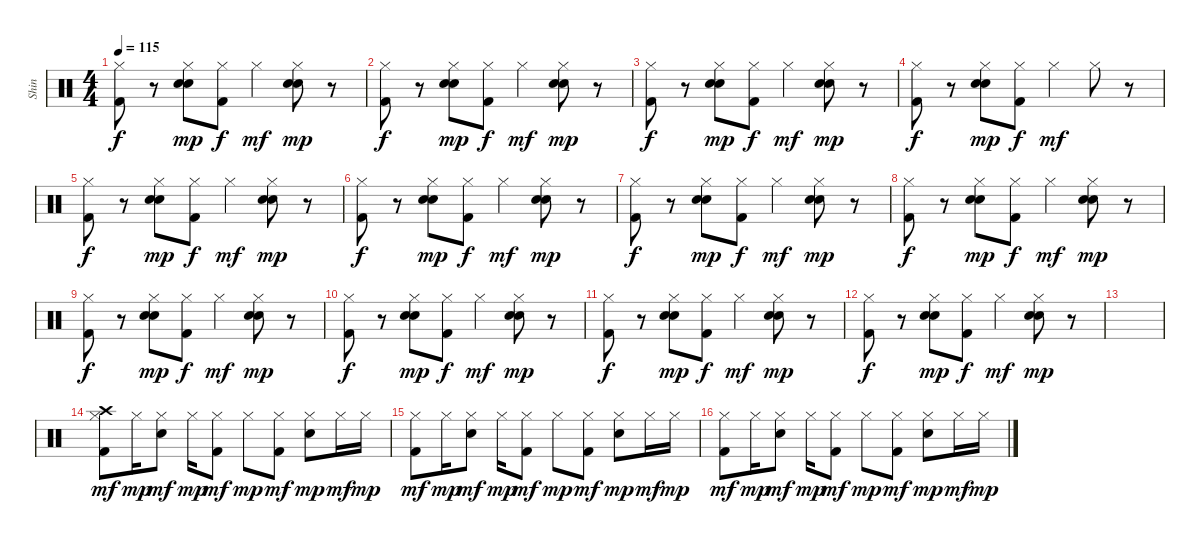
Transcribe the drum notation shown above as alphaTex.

\track ("Shin" "Shin") {instrument percussion}
\staff {score}
\articulation defaults
\ts (4 4)
\tempo 115
\clef neutral
\ks c
("Kick (hit) 2" "Hi-Hat (closed)").8{dy f} r.8 ("Hi-Hat (closed)" "Snare (hit) 2" "Hand Clap (hit)").8{dy mp} ("Kick (hit) 2" "Hi-Hat (closed)").8{dy f} "Hi-Hat (closed)".4{dy mf} ("Hi-Hat (closed)" "Snare (hit) 2" "Hand Clap (hit)").8{dy mp} r.8 |
("Kick (hit) 2" "Hi-Hat (closed)").8{dy f} r.8 ("Hi-Hat (closed)" "Snare (hit) 2" "Hand Clap (hit)").8{dy mp} ("Kick (hit) 2" "Hi-Hat (closed)").8{dy f} "Hi-Hat (closed)".4{dy mf} ("Hi-Hat (closed)" "Snare (hit) 2" "Hand Clap (hit)").8{dy mp} r.8 |
("Kick (hit) 2" "Hi-Hat (closed)").8{dy f} r.8 ("Hi-Hat (closed)" "Snare (hit) 2" "Hand Clap (hit)").8{dy mp} ("Kick (hit) 2" "Hi-Hat (closed)").8{dy f} "Hi-Hat (closed)".4{dy mf} ("Hi-Hat (closed)" "Snare (hit) 2" "Hand Clap (hit)").8{dy mp} r.8 |
("Kick (hit) 2" "Hi-Hat (closed)").8{dy f} r.8 ("Hi-Hat (closed)" "Snare (hit) 2" "Hand Clap (hit)").8{dy mp} ("Kick (hit) 2" "Hi-Hat (closed)").8{dy f} "Hi-Hat (closed)".4{dy mf} "Hi-Hat (closed)".8 r.8 |
("Kick (hit) 2" "Hi-Hat (closed)").8{dy f} r.8 ("Hi-Hat (closed)" "Snare (hit) 2" "Hand Clap (hit)").8{dy mp} ("Kick (hit) 2" "Hi-Hat (closed)").8{dy f} "Hi-Hat (closed)".4{dy mf} ("Hi-Hat (closed)" "Snare (hit) 2" "Hand Clap (hit)").8{dy mp} r.8 |
("Kick (hit) 2" "Hi-Hat (closed)").8{dy f} r.8 ("Hi-Hat (closed)" "Snare (hit) 2" "Hand Clap (hit)").8{dy mp} ("Kick (hit) 2" "Hi-Hat (closed)").8{dy f} "Hi-Hat (closed)".4{dy mf} ("Hi-Hat (closed)" "Snare (hit) 2" "Hand Clap (hit)").8{dy mp} r.8 |
("Kick (hit) 2" "Hi-Hat (closed)").8{dy f} r.8 ("Hi-Hat (closed)" "Snare (hit) 2" "Hand Clap (hit)").8{dy mp} ("Kick (hit) 2" "Hi-Hat (closed)").8{dy f} "Hi-Hat (closed)".4{dy mf} ("Hi-Hat (closed)" "Snare (hit) 2" "Hand Clap (hit)").8{dy mp} r.8 |
("Kick (hit) 2" "Hi-Hat (closed)").8{dy f} r.8 ("Hi-Hat (closed)" "Snare (hit) 2" "Hand Clap (hit)").8{dy mp} ("Kick (hit) 2" "Hi-Hat (closed)").8{dy f} "Hi-Hat (closed)".4{dy mf} ("Hi-Hat (closed)" "Snare (hit) 2" "Hand Clap (hit)").8{dy mp} r.8 |
("Kick (hit) 2" "Hi-Hat (closed)").8{dy f} r.8 ("Hi-Hat (closed)" "Snare (hit) 2" "Hand Clap (hit)").8{dy mp} ("Kick (hit) 2" "Hi-Hat (closed)").8{dy f} "Hi-Hat (closed)".4{dy mf} ("Hi-Hat (closed)" "Snare (hit) 2" "Hand Clap (hit)").8{dy mp} r.8 |
("Kick (hit) 2" "Hi-Hat (closed)").8{dy f} r.8 ("Hi-Hat (closed)" "Snare (hit) 2" "Hand Clap (hit)").8{dy mp} ("Kick (hit) 2" "Hi-Hat (closed)").8{dy f} "Hi-Hat (closed)".4{dy mf} ("Hi-Hat (closed)" "Snare (hit) 2" "Hand Clap (hit)").8{dy mp} r.8 |
("Kick (hit) 2" "Hi-Hat (closed)").8{dy f} r.8 ("Hi-Hat (closed)" "Snare (hit) 2" "Hand Clap (hit)").8{dy mp} ("Kick (hit) 2" "Hi-Hat (closed)").8{dy f} "Hi-Hat (closed)".4{dy mf} ("Hi-Hat (closed)" "Snare (hit) 2" "Hand Clap (hit)").8{dy mp} r.8 |
("Kick (hit) 2" "Hi-Hat (closed)").8{dy f} r.8 ("Hi-Hat (closed)" "Snare (hit) 2" "Hand Clap (hit)").8{dy mp} ("Kick (hit) 2" "Hi-Hat (closed)").8{dy f} "Hi-Hat (closed)".4{dy mf} ("Hi-Hat (closed)" "Snare (hit) 2" "Hand Clap (hit)").8{dy mp} r.8 |
|
("Hi-Hat (closed)" "Crash high (hit)" "Kick (hit) 2").8{dy mf} "Hi-Hat (closed)".16{dy mp} ("Hi-Hat (closed)" "Snare (hit) 2").8{dy mf} "Hi-Hat (closed)".16{dy mp} ("Hi-Hat (closed)" "Kick (hit) 2").8{dy mf} "Hi-Hat (closed)".8{dy mp} ("Hi-Hat (closed)" "Kick (hit) 2").8{dy mf} ("Hi-Hat (closed)" "Snare (hit) 2").8{dy mp} "Hi-Hat (closed)".16{dy mf} "Hi-Hat (closed)".16{dy mp} |
("Hi-Hat (closed)" "Kick (hit) 2").8{dy mf} "Hi-Hat (closed)".16{dy mp} ("Hi-Hat (closed)" "Snare (hit) 2").8{dy mf} "Hi-Hat (closed)".16{dy mp} ("Hi-Hat (closed)" "Kick (hit) 2").8{dy mf} "Hi-Hat (closed)".8{dy mp} ("Hi-Hat (closed)" "Kick (hit) 2").8{dy mf} ("Hi-Hat (closed)" "Snare (hit) 2").8{dy mp} "Hi-Hat (closed)".16{dy mf} "Hi-Hat (closed)".16{dy mp} |
("Hi-Hat (closed)" "Kick (hit) 2").8{dy mf} "Hi-Hat (closed)".16{dy mp} ("Hi-Hat (closed)" "Snare (hit) 2").8{dy mf} "Hi-Hat (closed)".16{dy mp} ("Hi-Hat (closed)" "Kick (hit) 2").8{dy mf} "Hi-Hat (closed)".8{dy mp} ("Hi-Hat (closed)" "Kick (hit) 2").8{dy mf} ("Hi-Hat (closed)" "Snare (hit) 2").8{dy mp} "Hi-Hat (closed)".16{dy mf} "Hi-Hat (closed)".16{dy mp}
